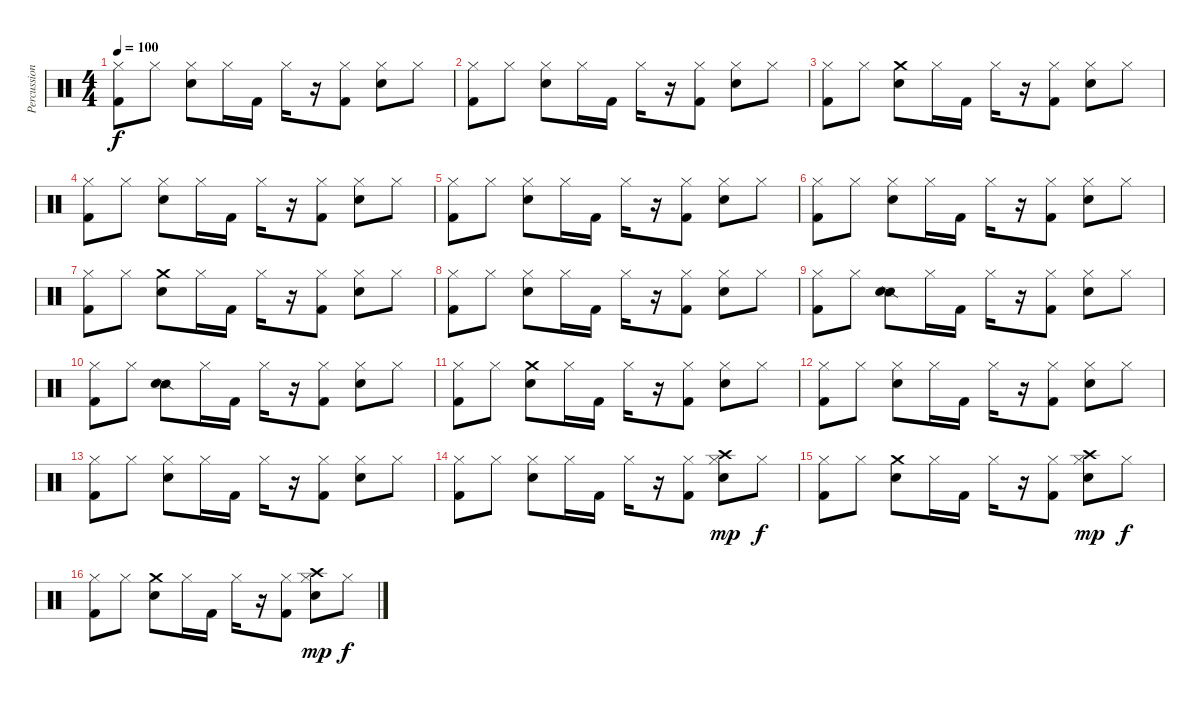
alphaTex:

\track ("Percussion" "Percussion") {instrument percussion}
\staff {score}
\articulation defaults
\ts (4 4)
\tempo 100
\clef neutral
\ks c
("Hi-Hat (closed)" "Kick (hit) 2").8{dy f} "Hi-Hat (closed)".8 ("Hi-Hat (closed)" "Electric Snare (hit)").8 "Hi-Hat (closed)".16 "Kick (hit) 2".16 "Hi-Hat (closed)".16 r.16 ("Hi-Hat (closed)" "Kick (hit) 2").8 ("Hi-Hat (closed)" "Electric Snare (hit)").8 "Hi-Hat (closed)".8 |
("Hi-Hat (closed)" "Kick (hit) 2").8 "Hi-Hat (closed)".8 ("Hi-Hat (closed)" "Electric Snare (hit)").8 "Hi-Hat (closed)".16 "Kick (hit) 2".16 "Hi-Hat (closed)".16 r.16 ("Hi-Hat (closed)" "Kick (hit) 2").8 ("Hi-Hat (closed)" "Electric Snare (hit)").8 "Hi-Hat (closed)".8 |
("Hi-Hat (closed)" "Kick (hit) 2").8 "Hi-Hat (closed)".8 ("Crash medium (hit)" "Electric Snare (hit)").8 "Hi-Hat (closed)".16 "Kick (hit) 2".16 "Hi-Hat (closed)".16 r.16 ("Hi-Hat (closed)" "Kick (hit) 2").8 ("Hi-Hat (closed)" "Electric Snare (hit)").8 "Hi-Hat (closed)".8 |
("Hi-Hat (closed)" "Kick (hit) 2").8 "Hi-Hat (closed)".8 ("Hi-Hat (closed)" "Electric Snare (hit)").8 "Hi-Hat (closed)".16 "Kick (hit) 2".16 "Hi-Hat (closed)".16 r.16 ("Hi-Hat (closed)" "Kick (hit) 2").8 ("Hi-Hat (closed)" "Electric Snare (hit)").8 "Hi-Hat (closed)".8 |
("Hi-Hat (closed)" "Kick (hit) 2").8 "Hi-Hat (closed)".8 ("Hi-Hat (closed)" "Electric Snare (hit)").8 "Hi-Hat (closed)".16 "Kick (hit) 2".16 "Hi-Hat (closed)".16 r.16 ("Hi-Hat (closed)" "Kick (hit) 2").8 ("Hi-Hat (closed)" "Electric Snare (hit)").8 "Hi-Hat (closed)".8 |
("Hi-Hat (closed)" "Kick (hit) 2").8 "Hi-Hat (closed)".8 ("Hi-Hat (closed)" "Electric Snare (hit)").8 "Hi-Hat (closed)".16 "Kick (hit) 2".16 "Hi-Hat (closed)".16 r.16 ("Hi-Hat (closed)" "Kick (hit) 2").8 ("Hi-Hat (closed)" "Electric Snare (hit)").8 "Hi-Hat (closed)".8 |
("Hi-Hat (closed)" "Kick (hit) 2").8 "Hi-Hat (closed)".8 ("Crash medium (hit)" "Electric Snare (hit)").8 "Hi-Hat (closed)".16 "Kick (hit) 2".16 "Hi-Hat (closed)".16 r.16 ("Hi-Hat (closed)" "Kick (hit) 2").8 ("Hi-Hat (closed)" "Electric Snare (hit)").8 "Hi-Hat (closed)".8 |
("Hi-Hat (closed)" "Kick (hit) 2").8 "Hi-Hat (closed)".8 ("Hi-Hat (closed)" "Electric Snare (hit)").8 "Hi-Hat (closed)".16 "Kick (hit) 2".16 "Hi-Hat (closed)".16 r.16 ("Hi-Hat (closed)" "Kick (hit) 2").8 ("Hi-Hat (closed)" "Electric Snare (hit)").8 "Hi-Hat (closed)".8 |
("Hi-Hat (closed)" "Kick (hit) 2").8 "Hi-Hat (closed)".8 ("Snare (side stick) 2" "Electric Snare (hit)").8 "Hi-Hat (closed)".16 "Kick (hit) 2".16 "Hi-Hat (closed)".16 r.16 ("Hi-Hat (closed)" "Kick (hit) 2").8 ("Hi-Hat (closed)" "Electric Snare (hit)").8 "Hi-Hat (closed)".8 |
("Hi-Hat (closed)" "Kick (hit) 2").8 "Hi-Hat (closed)".8 ("Snare (side stick) 2" "Electric Snare (hit)").8 "Hi-Hat (closed)".16 "Kick (hit) 2".16 "Hi-Hat (closed)".16 r.16 ("Hi-Hat (closed)" "Kick (hit) 2").8 ("Hi-Hat (closed)" "Electric Snare (hit)").8 "Hi-Hat (closed)".8 |
("Hi-Hat (closed)" "Kick (hit) 2").8 "Hi-Hat (closed)".8 ("Crash medium (hit)" "Electric Snare (hit)").8 "Hi-Hat (closed)".16 "Kick (hit) 2".16 "Hi-Hat (closed)".16 r.16 ("Hi-Hat (closed)" "Kick (hit) 2").8 ("Hi-Hat (closed)" "Electric Snare (hit)").8 "Hi-Hat (closed)".8 |
("Hi-Hat (closed)" "Kick (hit) 2").8 "Hi-Hat (closed)".8 ("Hi-Hat (closed)" "Electric Snare (hit)").8 "Hi-Hat (closed)".16 "Kick (hit) 2".16 "Hi-Hat (closed)".16 r.16 ("Hi-Hat (closed)" "Kick (hit) 2").8 ("Hi-Hat (closed)" "Electric Snare (hit)").8 "Hi-Hat (closed)".8 |
("Hi-Hat (closed)" "Kick (hit) 2").8 "Hi-Hat (closed)".8 ("Hi-Hat (closed)" "Electric Snare (hit)").8 "Hi-Hat (closed)".16 "Kick (hit) 2".16 "Hi-Hat (closed)".16 r.16 ("Hi-Hat (closed)" "Kick (hit) 2").8 ("Hi-Hat (closed)" "Electric Snare (hit)").8 "Hi-Hat (closed)".8 |
("Hi-Hat (closed)" "Kick (hit) 2").8 "Hi-Hat (closed)".8 ("Hi-Hat (closed)" "Electric Snare (hit)").8 "Hi-Hat (closed)".16 "Kick (hit) 2".16 "Hi-Hat (closed)".16 r.16 ("Hi-Hat (closed)" "Kick (hit) 2").8 ("Hi-Hat (closed)" "Electric Snare (hit)" "Crash high (hit)").8{dy mp} "Hi-Hat (closed)".8{dy f} |
("Hi-Hat (closed)" "Kick (hit) 2").8 "Hi-Hat (closed)".8 ("Crash medium (hit)" "Electric Snare (hit)").8 "Hi-Hat (closed)".16 "Kick (hit) 2".16 "Hi-Hat (closed)".16 r.16 ("Hi-Hat (closed)" "Kick (hit) 2").8 ("Hi-Hat (closed)" "Electric Snare (hit)" "Crash high (hit)").8{dy mp} "Hi-Hat (closed)".8{dy f} |
("Hi-Hat (closed)" "Kick (hit) 2").8 "Hi-Hat (closed)".8 ("Crash medium (hit)" "Electric Snare (hit)").8 "Hi-Hat (closed)".16 "Kick (hit) 2".16 "Hi-Hat (closed)".16 r.16 ("Hi-Hat (closed)" "Kick (hit) 2").8 ("Hi-Hat (closed)" "Electric Snare (hit)" "Crash high (hit)").8{dy mp} "Hi-Hat (closed)".8{dy f}
